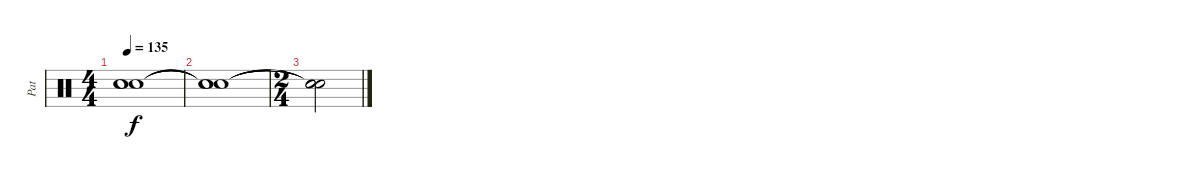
\track ("Pat" "Pat") {instrument percussion}
\staff {score}
\articulation defaults
\ts (4 4)
\tempo 135
\clef neutral
\ks c
("Snare (hit)"{t} "Snare (hit)"{t} "Snare (hit)"{t}).1{dy f} |
("Snare (hit)"{t} "Snare (hit)"{t} "Snare (hit)"{t}).1 |
\ts (2 4)
("Snare (hit)"{t} "Snare (hit)"{t} "Snare (hit)"{t}).2
